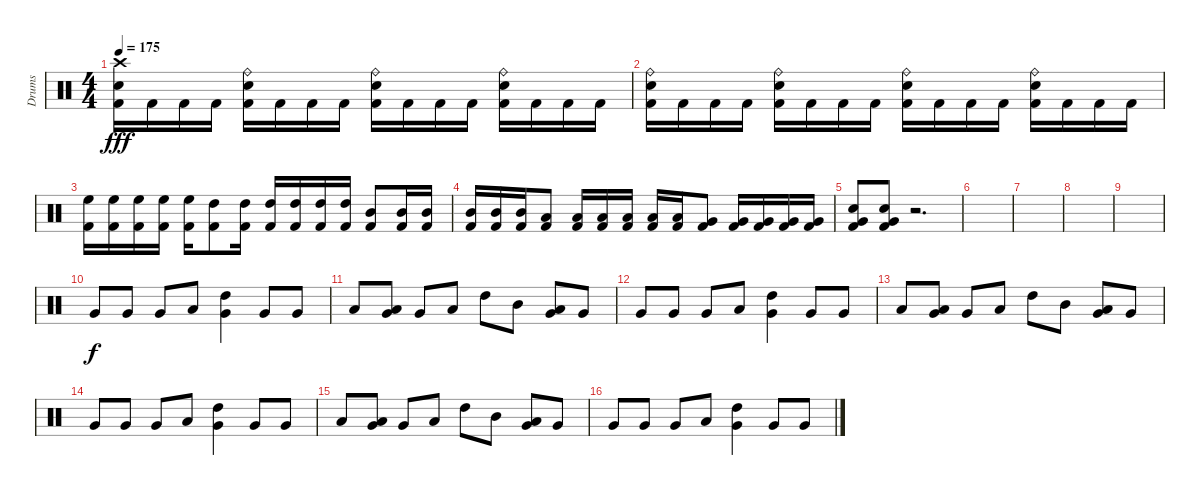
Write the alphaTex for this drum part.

\track ("Drums" "Drums") {instrument percussion}
\staff {score}
\articulation defaults
\ts (4 4)
\tempo 175
\clef neutral
\ks c
("Crash high (hit)" "Electric Snare (hit)" "Kick (hit) 2").16{dy fff} "Kick (hit) 2".16 "Kick (hit) 2".16 "Kick (hit) 2".16 ("Ride (bell)" "Electric Snare (hit)" "Kick (hit) 2").16 "Kick (hit) 2".16 "Kick (hit) 2".16 "Kick (hit) 2".16 ("Ride (bell)" "Electric Snare (hit)" "Kick (hit) 2").16 "Kick (hit) 2".16 "Kick (hit) 2".16 "Kick (hit) 2".16 ("Ride (bell)" "Electric Snare (hit)" "Kick (hit) 2").16 "Kick (hit) 2".16 "Kick (hit) 2".16 "Kick (hit) 2".16 |
("Ride (bell)" "Electric Snare (hit)" "Kick (hit) 2").16 "Kick (hit) 2".16 "Kick (hit) 2".16 "Kick (hit) 2".16 ("Ride (bell)" "Electric Snare (hit)" "Kick (hit) 2").16 "Kick (hit) 2".16 "Kick (hit) 2".16 "Kick (hit) 2".16 ("Ride (bell)" "Electric Snare (hit)" "Kick (hit) 2").16 "Kick (hit) 2".16 "Kick (hit) 2".16 "Kick (hit) 2".16 ("Ride (bell)" "Electric Snare (hit)" "Kick (hit) 2").16 "Kick (hit) 2".16 "Kick (hit) 2".16 "Kick (hit) 2".16 |
("High Floor Tom (hit)" "Kick (hit) 2").16 ("High Floor Tom (hit)" "Kick (hit) 2").16 ("High Floor Tom (hit)" "Kick (hit) 2").16 ("High Floor Tom (hit)" "Kick (hit) 2").16 ("High Floor Tom (hit)" "Kick (hit) 2").16 ("High Tom (hit)" "Kick (hit) 2").8 ("High Tom (hit)" "Kick (hit) 2").16 ("High Tom (hit)" "Kick (hit) 2").16 ("High Tom (hit)" "Kick (hit) 2").16 ("High Tom (hit)" "Kick (hit) 2").16 ("High Tom (hit)" "Kick (hit) 2").16 ("Mid Tom (hit)" "Kick (hit) 2").8 ("Mid Tom (hit)" "Kick (hit) 2").16 ("Mid Tom (hit)" "Kick (hit) 2").16 |
("Mid Tom (hit)" "Kick (hit) 2").16 ("Mid Tom (hit)" "Kick (hit) 2").16 ("Mid Tom (hit)" "Kick (hit) 2").16 ("Low Tom (hit)" "Kick (hit) 2").8 ("Low Tom (hit)" "Kick (hit) 2").16 ("Low Tom (hit)" "Kick (hit) 2").16 ("Low Tom (hit)" "Kick (hit) 2").16 ("Low Tom (hit)" "Kick (hit) 2").16 ("Low Tom (hit)" "Kick (hit) 2").16 ("Very Low Tom (hit)" "Kick (hit) 2").8 ("Very Low Tom (hit)" "Kick (hit) 2").16 ("Very Low Tom (hit)" "Kick (hit) 2").16 ("Very Low Tom (hit)" "Kick (hit) 2").16 ("Very Low Tom (hit)" "Kick (hit) 2").16 |
("Electric Snare (hit)" "Very Low Tom (hit)" "Kick (hit) 2").8 ("Electric Snare (hit)" "Very Low Tom (hit)" "Kick (hit) 2").8 r.2{d} |
|
|
|
|
"Very Low Tom (hit)".8{dy f} "Very Low Tom (hit)".8 "Very Low Tom (hit)".8 "Low Floor Tom (hit)".8 ("High Tom (hit)" "Very Low Tom (hit)").4 "Very Low Tom (hit)".8 "Very Low Tom (hit)".8 |
"Low Floor Tom (hit)".8 ("Low Tom (hit)" "Very Low Tom (hit)").8 "Very Low Tom (hit)".8 "Low Floor Tom (hit)".8 "High Tom (hit)".8 "Mid Tom (hit)".8 ("Low Tom (hit)" "Very Low Tom (hit)").8 "Very Low Tom (hit)".8 |
"Very Low Tom (hit)".8 "Very Low Tom (hit)".8 "Very Low Tom (hit)".8 "Low Floor Tom (hit)".8 ("High Tom (hit)" "Very Low Tom (hit)").4 "Very Low Tom (hit)".8 "Very Low Tom (hit)".8 |
"Low Floor Tom (hit)".8 ("Low Tom (hit)" "Very Low Tom (hit)").8 "Very Low Tom (hit)".8 "Low Floor Tom (hit)".8 "High Tom (hit)".8 "Mid Tom (hit)".8 ("Low Tom (hit)" "Very Low Tom (hit)").8 "Very Low Tom (hit)".8 |
"Very Low Tom (hit)".8 "Very Low Tom (hit)".8 "Very Low Tom (hit)".8 "Low Floor Tom (hit)".8 ("High Tom (hit)" "Very Low Tom (hit)").4 "Very Low Tom (hit)".8 "Very Low Tom (hit)".8 |
"Low Floor Tom (hit)".8 ("Low Tom (hit)" "Very Low Tom (hit)").8 "Very Low Tom (hit)".8 "Low Floor Tom (hit)".8 "High Tom (hit)".8 "Mid Tom (hit)".8 ("Low Tom (hit)" "Very Low Tom (hit)").8 "Very Low Tom (hit)".8 |
"Very Low Tom (hit)".8 "Very Low Tom (hit)".8 "Very Low Tom (hit)".8 "Low Floor Tom (hit)".8 ("High Tom (hit)" "Very Low Tom (hit)").4 "Very Low Tom (hit)".8 "Very Low Tom (hit)".8
